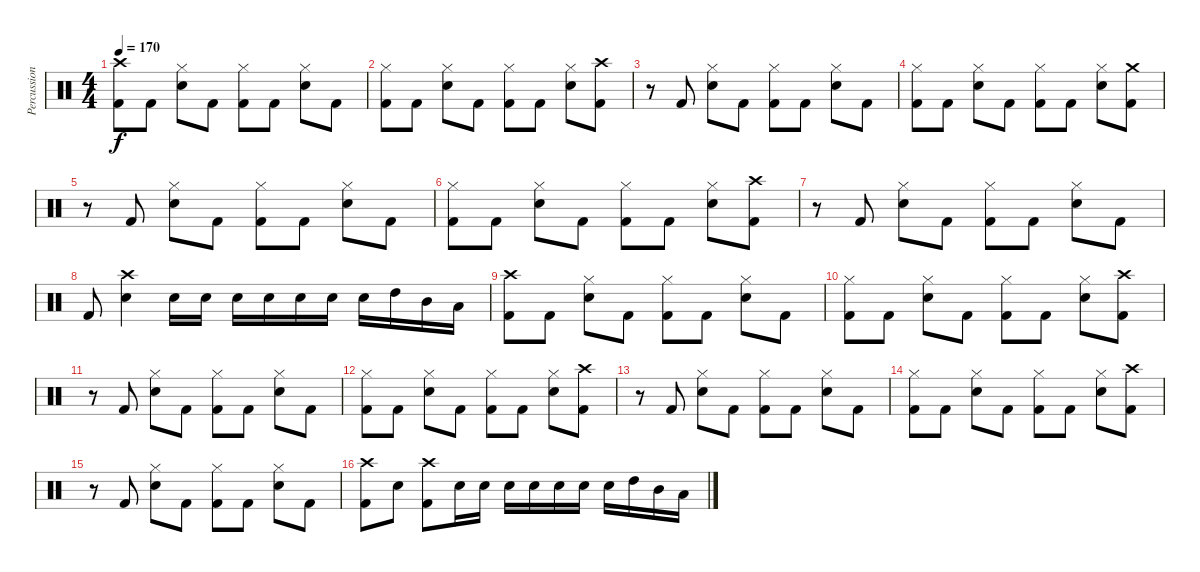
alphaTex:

\track ("Percussion" "Percussion") {instrument percussion}
\staff {score}
\articulation defaults
\ts (4 4)
\tempo 170
\clef neutral
\ks c
("Crash high (hit)" "Kick (hit) 2").8{dy f} "Kick (hit) 2".8 ("Hi-Hat (closed)" "Electric Snare (hit)").8 "Kick (hit) 2".8 ("Hi-Hat (closed)" "Kick (hit) 2").8 "Kick (hit) 2".8 ("Hi-Hat (closed)" "Electric Snare (hit)").8 "Kick (hit) 2".8 |
("Hi-Hat (closed)" "Kick (hit) 2").8 "Kick (hit) 2".8 ("Hi-Hat (closed)" "Electric Snare (hit)").8 "Kick (hit) 2".8 ("Hi-Hat (closed)" "Kick (hit) 2").8 "Kick (hit) 2".8 ("Hi-Hat (closed)" "Electric Snare (hit)").8 ("Crash high (hit)" "Kick (hit) 2").8 |
r.8 "Kick (hit) 2".8 ("Hi-Hat (closed)" "Electric Snare (hit)").8 "Kick (hit) 2".8 ("Hi-Hat (closed)" "Kick (hit) 2").8 "Kick (hit) 2".8 ("Hi-Hat (closed)" "Electric Snare (hit)").8 "Kick (hit) 2".8 |
("Hi-Hat (closed)" "Kick (hit) 2").8 "Kick (hit) 2".8 ("Hi-Hat (closed)" "Electric Snare (hit)").8 "Kick (hit) 2".8 ("Hi-Hat (closed)" "Kick (hit) 2").8 "Kick (hit) 2".8 ("Hi-Hat (closed)" "Electric Snare (hit)").8 ("Crash medium (hit)" "Kick (hit) 2").8 |
r.8 "Kick (hit) 2".8 ("Hi-Hat (closed)" "Electric Snare (hit)").8 "Kick (hit) 2".8 ("Hi-Hat (closed)" "Kick (hit) 2").8 "Kick (hit) 2".8 ("Hi-Hat (closed)" "Electric Snare (hit)").8 "Kick (hit) 2".8 |
("Hi-Hat (closed)" "Kick (hit) 2").8 "Kick (hit) 2".8 ("Hi-Hat (closed)" "Electric Snare (hit)").8 "Kick (hit) 2".8 ("Hi-Hat (closed)" "Kick (hit) 2").8 "Kick (hit) 2".8 ("Hi-Hat (closed)" "Electric Snare (hit)").8 ("Crash high (hit)" "Kick (hit) 2").8 |
r.8 "Kick (hit) 2".8 ("Hi-Hat (closed)" "Electric Snare (hit)").8 "Kick (hit) 2".8 ("Hi-Hat (closed)" "Kick (hit) 2").8 "Kick (hit) 2".8 ("Hi-Hat (closed)" "Electric Snare (hit)").8 "Kick (hit) 2".8 |
"Kick (hit) 2".8 ("Crash high (hit)" "Electric Snare (hit)").4 "Electric Snare (hit)".16 "Electric Snare (hit)".16 "Electric Snare (hit)".16 "Electric Snare (hit)".16 "Electric Snare (hit)".16 "Electric Snare (hit)".16 "Electric Snare (hit)".16 "High Tom (hit)".16 "Mid Tom (hit)".16 "Low Tom (hit)".16 |
("Crash high (hit)" "Kick (hit) 2").8 "Kick (hit) 2".8 ("Hi-Hat (closed)" "Electric Snare (hit)").8 "Kick (hit) 2".8 ("Hi-Hat (closed)" "Kick (hit) 2").8 "Kick (hit) 2".8 ("Hi-Hat (closed)" "Electric Snare (hit)").8 "Kick (hit) 2".8 |
("Hi-Hat (closed)" "Kick (hit) 2").8 "Kick (hit) 2".8 ("Hi-Hat (closed)" "Electric Snare (hit)").8 "Kick (hit) 2".8 ("Hi-Hat (closed)" "Kick (hit) 2").8 "Kick (hit) 2".8 ("Hi-Hat (closed)" "Electric Snare (hit)").8 ("Crash high (hit)" "Kick (hit) 2").8 |
r.8 "Kick (hit) 2".8 ("Hi-Hat (closed)" "Electric Snare (hit)").8 "Kick (hit) 2".8 ("Hi-Hat (closed)" "Kick (hit) 2").8 "Kick (hit) 2".8 ("Hi-Hat (closed)" "Electric Snare (hit)").8 "Kick (hit) 2".8 |
("Hi-Hat (closed)" "Kick (hit) 2").8 "Kick (hit) 2".8 ("Hi-Hat (closed)" "Electric Snare (hit)").8 "Kick (hit) 2".8 ("Hi-Hat (closed)" "Kick (hit) 2").8 "Kick (hit) 2".8 ("Hi-Hat (closed)" "Electric Snare (hit)").8 ("Crash high (hit)" "Kick (hit) 2").8 |
r.8 "Kick (hit) 2".8 ("Hi-Hat (closed)" "Electric Snare (hit)").8 "Kick (hit) 2".8 ("Hi-Hat (closed)" "Kick (hit) 2").8 "Kick (hit) 2".8 ("Hi-Hat (closed)" "Electric Snare (hit)").8 "Kick (hit) 2".8 |
("Hi-Hat (closed)" "Kick (hit) 2").8 "Kick (hit) 2".8 ("Hi-Hat (closed)" "Electric Snare (hit)").8 "Kick (hit) 2".8 ("Hi-Hat (closed)" "Kick (hit) 2").8 "Kick (hit) 2".8 ("Hi-Hat (closed)" "Electric Snare (hit)").8 ("Crash high (hit)" "Kick (hit) 2").8 |
r.8 "Kick (hit) 2".8 ("Hi-Hat (closed)" "Electric Snare (hit)").8 "Kick (hit) 2".8 ("Hi-Hat (closed)" "Kick (hit) 2").8 "Kick (hit) 2".8 ("Hi-Hat (closed)" "Electric Snare (hit)").8 "Kick (hit) 2".8 |
("Crash high (hit)" "Kick (hit) 2").8 "Electric Snare (hit)".8 ("Crash high (hit)" "Kick (hit) 2").8 "Electric Snare (hit)".16 "Electric Snare (hit)".16 "Electric Snare (hit)".16 "Electric Snare (hit)".16 "Electric Snare (hit)".16 "Electric Snare (hit)".16 "Electric Snare (hit)".16 "High Tom (hit)".16 "Mid Tom (hit)".16 "Low Tom (hit)".16
